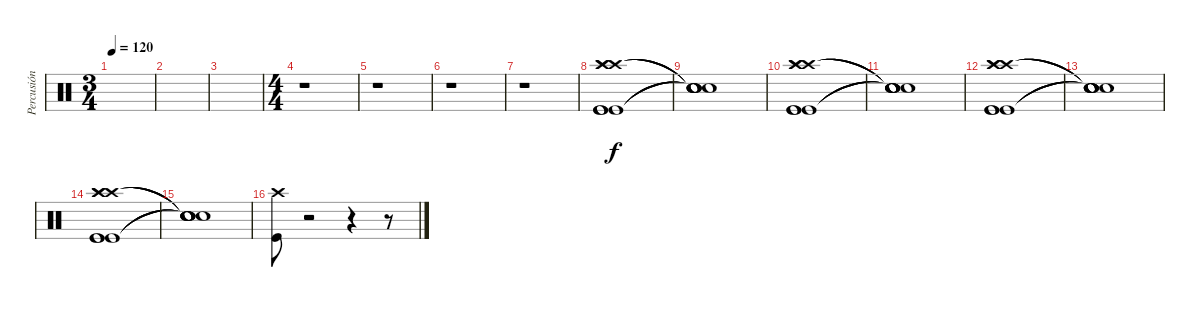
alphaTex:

\track ("Percusión" "Percusión") {instrument percussion}
\staff {score}
\articulation defaults
\ts (3 4)
\tempo 120
\clef neutral
\ks c
|
|
|
\ts (4 4)
r.1 |
r.1 |
r.1 |
r.1 |
("Crash high (hit)" "Kick (hit)" "Crash high (hit)" "Kick (hit)" "Crash high (hit)" "Kick (hit)").1 |
("Snare (hit)"{t} "Snare (hit)"{t} "Snare (hit)"{t} "Snare (hit)"{t} "Snare (hit)"{t} "Snare (hit)"{t}).1 |
("Crash high (hit)" "Kick (hit)" "Crash high (hit)" "Kick (hit)" "Crash high (hit)" "Kick (hit)").1 |
("Snare (hit)"{t} "Snare (hit)"{t} "Snare (hit)"{t} "Snare (hit)"{t} "Snare (hit)"{t} "Snare (hit)"{t}).1 |
("Crash high (hit)" "Kick (hit)" "Crash high (hit)" "Kick (hit)" "Crash high (hit)" "Kick (hit)").1 |
("Snare (hit)"{t} "Snare (hit)"{t} "Snare (hit)"{t} "Snare (hit)"{t} "Snare (hit)"{t} "Snare (hit)"{t}).1 |
("Crash high (hit)" "Kick (hit)" "Crash high (hit)" "Kick (hit)" "Crash high (hit)" "Kick (hit)").1 |
("Snare (hit)"{t} "Snare (hit)"{t} "Snare (hit)"{t} "Snare (hit)"{t} "Snare (hit)"{t} "Snare (hit)"{t}).1 |
("Crash high (hit)" "Kick (hit)").8 r.2 r.4 r.8
